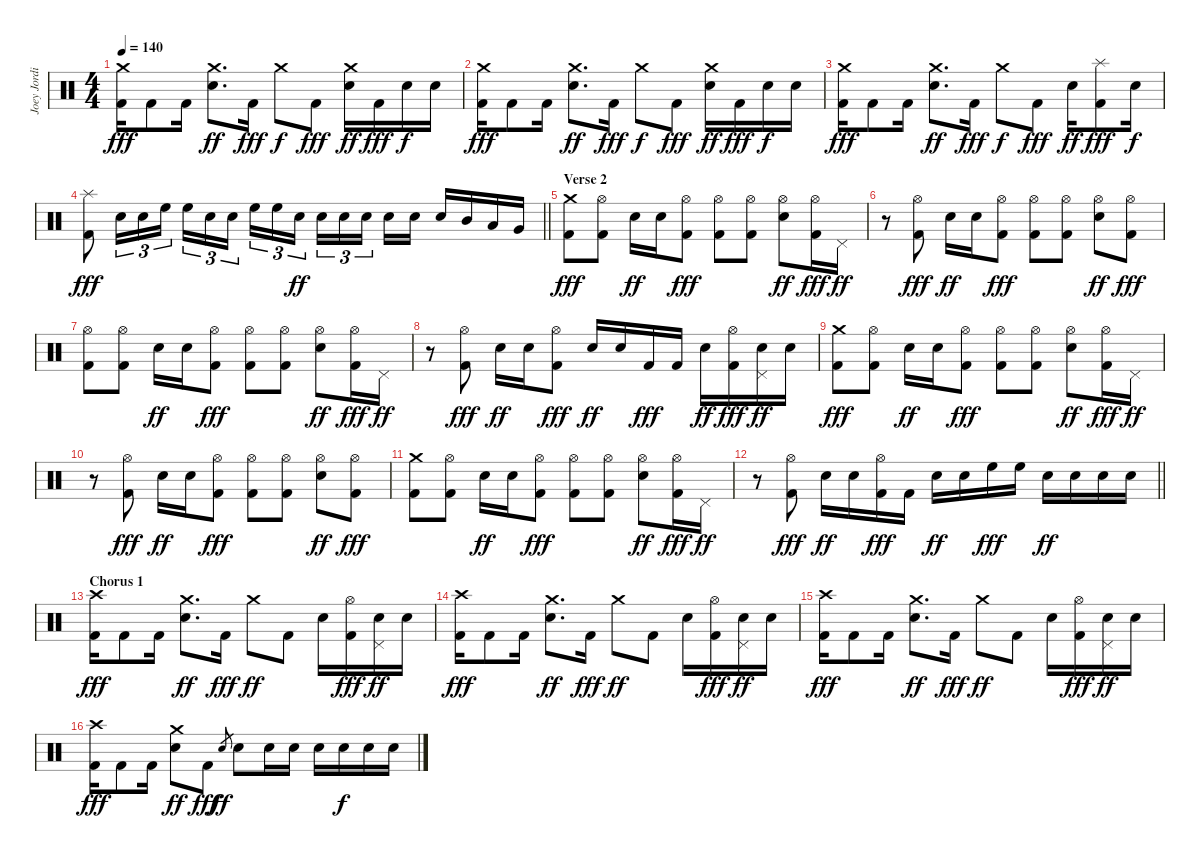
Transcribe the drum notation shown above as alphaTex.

\track ("Joey Jordison" "Joey Jordi") {instrument percussion}
\staff {score}
\articulation defaults
\ts (4 4)
\tempo 140
\clef neutral
\ks c
("Crash medium (hit)" "Kick (hit) 2").16{dy fff} "Kick (hit) 2".8 "Kick (hit) 2".16 ("Crash medium (hit)" "Electric Snare (hit)").8{d dy ff} "Kick (hit) 2".16{dy fff} "Crash medium (hit)".8{dy f} "Kick (hit) 2".8{dy fff} ("Crash medium (hit)" "Electric Snare (hit)").16{dy ff} "Kick (hit) 2".16{dy fff} "Electric Snare (hit)".16{dy f} "Electric Snare (hit)".16 |
("Crash medium (hit)" "Kick (hit) 2").16{dy fff} "Kick (hit) 2".8 "Kick (hit) 2".16 ("Crash medium (hit)" "Electric Snare (hit)").8{d dy ff} "Kick (hit) 2".16{dy fff} "Crash medium (hit)".8{dy f} "Kick (hit) 2".8{dy fff} ("Crash medium (hit)" "Electric Snare (hit)").16{dy ff} "Kick (hit) 2".16{dy fff} "Electric Snare (hit)".16{dy f} "Electric Snare (hit)".16 |
("Crash medium (hit)" "Kick (hit) 2").16{dy fff} "Kick (hit) 2".8 "Kick (hit) 2".16 ("Crash medium (hit)" "Electric Snare (hit)").8{d dy ff} "Kick (hit) 2".16{dy fff} "Crash medium (hit)".8{dy f} "Kick (hit) 2".8{dy fff} "Electric Snare (hit)".16{dy ff} ("Splash (hit)" "Kick (hit) 2").8{dy fff} "Electric Snare (hit)".16{dy f} |
\barLineRight lightlight
("Splash (hit)" "Kick (hit) 2").8{dy fff} "Electric Snare (hit)".16{tu (3 2)} "Electric Snare (hit)".16{tu (3 2)} "High Floor Tom (hit)".16{tu (3 2)} "High Floor Tom (hit)".16{tu (3 2)} "Electric Snare (hit)".16{tu (3 2)} "Electric Snare (hit)".16{tu (3 2) beam splitsecondary} "High Floor Tom (hit)".16{tu (3 2)} "High Floor Tom (hit)".16{tu (3 2)} "Electric Snare (hit)".16{tu (3 2) dy ff} "Electric Snare (hit)".16{tu (3 2)} "Electric Snare (hit)".16{tu (3 2)} "Electric Snare (hit)".16{tu (3 2) beam splitsecondary} "Electric Snare (hit)".16 "Electric Snare (hit)".16 "Electric Snare (hit)".16 "Mid Tom (hit)".16 "Low Tom (hit)".16 "Very Low Tom (hit)".16 |
\section ("" "Verse 2")
("Crash medium (hit)" "Kick (hit) 2").8{dy fff} ("Hi-Hat (open)" "Kick (hit) 2").8 "Electric Snare (hit)".16{dy ff} "Electric Snare (hit)".16 ("Hi-Hat (open)" "Kick (hit) 2").8{dy fff} ("Hi-Hat (open)" "Kick (hit) 2").8 ("Hi-Hat (open)" "Kick (hit) 2").8 ("Hi-Hat (open)" "Electric Snare (hit)").8{dy ff} ("Hi-Hat (open)" "Kick (hit) 2").16{dy fff} "Pedal Hi-Hat (hit)".16{dy ff} |
r.8 ("Hi-Hat (open)" "Kick (hit) 2").8{dy fff} "Electric Snare (hit)".16{dy ff} "Electric Snare (hit)".16 ("Hi-Hat (open)" "Kick (hit) 2").8{dy fff} ("Hi-Hat (open)" "Kick (hit) 2").8 ("Hi-Hat (open)" "Kick (hit) 2").8 ("Hi-Hat (open)" "Electric Snare (hit)").8{dy ff} ("Hi-Hat (open)" "Kick (hit) 2").8{dy fff} |
("Hi-Hat (open)" "Kick (hit) 2").8 ("Hi-Hat (open)" "Kick (hit) 2").8 "Electric Snare (hit)".16{dy ff} "Electric Snare (hit)".16 ("Hi-Hat (open)" "Kick (hit) 2").8{dy fff} ("Hi-Hat (open)" "Kick (hit) 2").8 ("Hi-Hat (open)" "Kick (hit) 2").8 ("Hi-Hat (open)" "Electric Snare (hit)").8{dy ff} ("Hi-Hat (open)" "Kick (hit) 2").16{dy fff} "Pedal Hi-Hat (hit)".16{dy ff} |
r.8 ("Hi-Hat (open)" "Kick (hit) 2").8{dy fff} "Electric Snare (hit)".16{dy ff} "Electric Snare (hit)".16 ("Hi-Hat (open)" "Kick (hit) 2").8{dy fff} "Electric Snare (hit)".16{dy ff} "Electric Snare (hit)".16 "Kick (hit) 2".16{dy fff} "Kick (hit) 2".16 "Electric Snare (hit)".16{dy ff} ("Hi-Hat (open)" "Kick (hit) 2").16{dy fff} ("Electric Snare (hit)" "Pedal Hi-Hat (hit)").16{dy ff} "Electric Snare (hit)".16 |
("Crash medium (hit)" "Kick (hit) 2").8{dy fff} ("Hi-Hat (open)" "Kick (hit) 2").8 "Electric Snare (hit)".16{dy ff} "Electric Snare (hit)".16 ("Hi-Hat (open)" "Kick (hit) 2").8{dy fff} ("Hi-Hat (open)" "Kick (hit) 2").8 ("Hi-Hat (open)" "Kick (hit) 2").8 ("Hi-Hat (open)" "Electric Snare (hit)").8{dy ff} ("Hi-Hat (open)" "Kick (hit) 2").16{dy fff} "Pedal Hi-Hat (hit)".16{dy ff} |
r.8 ("Hi-Hat (open)" "Kick (hit) 2").8{dy fff} "Electric Snare (hit)".16{dy ff} "Electric Snare (hit)".16 ("Hi-Hat (open)" "Kick (hit) 2").8{dy fff} ("Hi-Hat (open)" "Kick (hit) 2").8 ("Hi-Hat (open)" "Kick (hit) 2").8 ("Hi-Hat (open)" "Electric Snare (hit)").8{dy ff} ("Hi-Hat (open)" "Kick (hit) 2").8{dy fff} |
("Crash medium (hit)" "Kick (hit) 2").8 ("Hi-Hat (open)" "Kick (hit) 2").8 "Electric Snare (hit)".16{dy ff} "Electric Snare (hit)".16 ("Hi-Hat (open)" "Kick (hit) 2").8{dy fff} ("Hi-Hat (open)" "Kick (hit) 2").8 ("Hi-Hat (open)" "Kick (hit) 2").8 ("Hi-Hat (open)" "Electric Snare (hit)").8{dy ff} ("Hi-Hat (open)" "Kick (hit) 2").16{dy fff} "Pedal Hi-Hat (hit)".16{dy ff} |
\barLineRight lightlight
r.8 ("Hi-Hat (open)" "Kick (hit) 2").8{dy fff} "Electric Snare (hit)".16{dy ff} "Electric Snare (hit)".16 ("Hi-Hat (open)" "Kick (hit) 2").16{dy fff} "Kick (hit) 2".16 "Electric Snare (hit)".16{dy ff} "Electric Snare (hit)".16 "High Floor Tom (hit)".16{dy fff} "High Floor Tom (hit)".16 "Electric Snare (hit)".16{dy ff} "Electric Snare (hit)".16 "Electric Snare (hit)".16 "Electric Snare (hit)".16 |
\section ("" "Chorus 1")
("Crash high (hit)" "Kick (hit) 2").16{dy fff} "Kick (hit) 2".8 "Kick (hit) 2".16 ("Crash medium (hit)" "Electric Snare (hit)").8{d dy ff} "Kick (hit) 2".16{dy fff} "Crash medium (hit)".8{dy ff} "Kick (hit) 2".8 "Electric Snare (hit)".16 ("Hi-Hat (open)" "Kick (hit) 2").16{dy fff} ("Electric Snare (hit)" "Pedal Hi-Hat (hit)").16{dy ff} "Electric Snare (hit)".16 |
("Crash high (hit)" "Kick (hit) 2").16{dy fff} "Kick (hit) 2".8 "Kick (hit) 2".16 ("Crash medium (hit)" "Electric Snare (hit)").8{d dy ff} "Kick (hit) 2".16{dy fff} "Crash medium (hit)".8{dy ff} "Kick (hit) 2".8 "Electric Snare (hit)".16 ("Hi-Hat (open)" "Kick (hit) 2").16{dy fff} ("Electric Snare (hit)" "Pedal Hi-Hat (hit)").16{dy ff} "Electric Snare (hit)".16 |
("Crash high (hit)" "Kick (hit) 2").16{dy fff} "Kick (hit) 2".8 "Kick (hit) 2".16 ("Crash medium (hit)" "Electric Snare (hit)").8{d dy ff} "Kick (hit) 2".16{dy fff} "Crash medium (hit)".8{dy ff} "Kick (hit) 2".8 "Electric Snare (hit)".16 ("Hi-Hat (open)" "Kick (hit) 2").16{dy fff} ("Electric Snare (hit)" "Pedal Hi-Hat (hit)").16{dy ff} "Electric Snare (hit)".16 |
("Crash high (hit)" "Kick (hit) 2").16{dy fff} "Kick (hit) 2".8 "Kick (hit) 2".16 ("Crash medium (hit)" "Electric Snare (hit)").8{dy ff} "Kick (hit) 2".8{dy fff} "Electric Snare (hit)".8{gr dy ff} "Electric Snare (hit)".8 "Electric Snare (hit)".16 "Electric Snare (hit)".16 "Electric Snare (hit)".16 "Electric Snare (hit)".16{dy f} "Electric Snare (hit)".16 "Electric Snare (hit)".16
